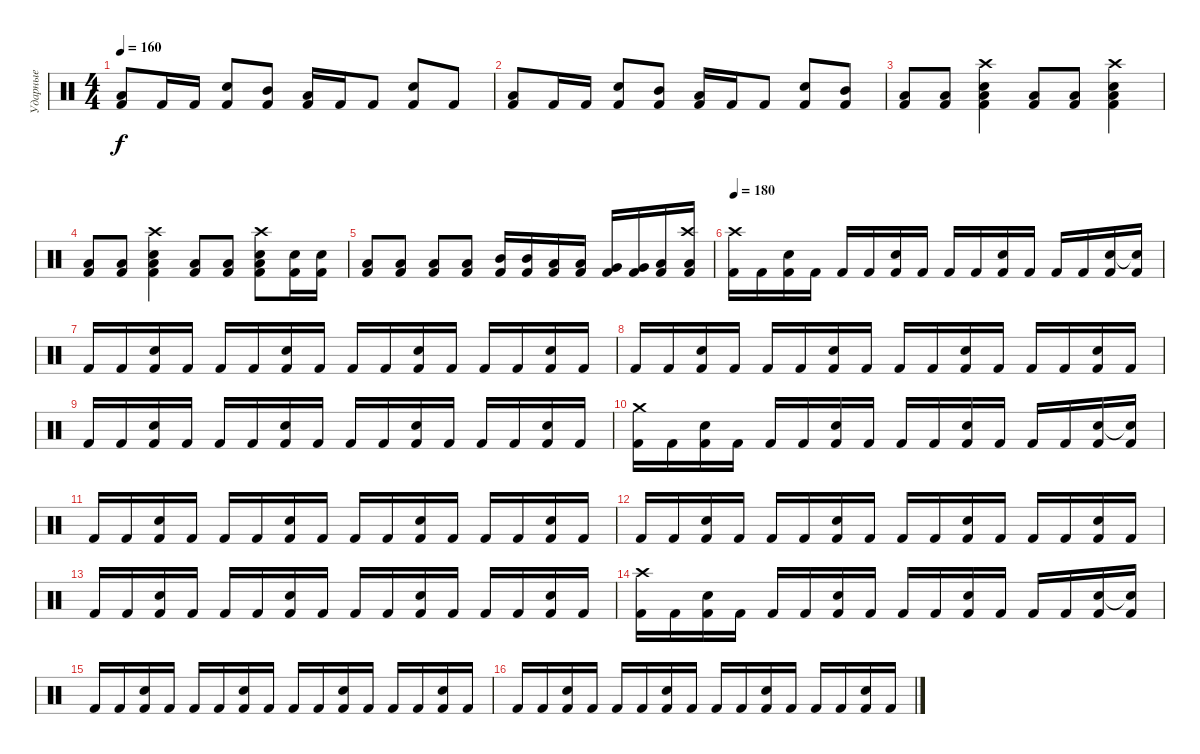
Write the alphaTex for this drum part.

\track ("Ударные" "Ударные") {instrument percussion}
\staff {score}
\articulation defaults
\ts (4 4)
\tempo 160
\clef neutral
\ks c
("Low Tom (hit)" "Kick (hit) 2").8{dy f} "Kick (hit) 2".16 "Kick (hit) 2".16 ("Snare (hit) 2" "Kick (hit) 2").8 ("Mid Tom (hit)" "Kick (hit) 2").8 ("Low Tom (hit)" "Kick (hit) 2").16 "Kick (hit) 2".16 "Kick (hit) 2".8 ("Snare (hit) 2" "Kick (hit) 2").8 "Kick (hit) 2".8 |
("Low Tom (hit)" "Kick (hit) 2").8 "Kick (hit) 2".16 "Kick (hit) 2".16 ("Snare (hit) 2" "Kick (hit) 2").8 ("Mid Tom (hit)" "Kick (hit) 2").8 ("Low Tom (hit)" "Kick (hit) 2").16 "Kick (hit) 2".16 "Kick (hit) 2".8 ("Snare (hit) 2" "Kick (hit) 2").8 ("Mid Tom (hit)" "Kick (hit) 2").8 |
("Low Tom (hit)" "Kick (hit) 2").8 ("Low Tom (hit)" "Kick (hit) 2").8 ("Crash high (hit)" "Snare (hit) 2" "Low Tom (hit)" "Kick (hit) 2").4 ("Low Tom (hit)" "Kick (hit) 2").8 ("Low Tom (hit)" "Kick (hit) 2").8 ("Crash high (hit)" "Snare (hit) 2" "Low Tom (hit)" "Kick (hit) 2").4 |
("Low Tom (hit)" "Kick (hit) 2").8 ("Low Tom (hit)" "Kick (hit) 2").8 ("Crash high (hit)" "Snare (hit) 2" "Low Tom (hit)" "Kick (hit) 2").4 ("Low Tom (hit)" "Kick (hit) 2").8 ("Low Tom (hit)" "Kick (hit) 2").8 ("Crash high (hit)" "Snare (hit) 2" "Low Tom (hit)" "Kick (hit) 2").8 ("Snare (hit) 2" "Kick (hit) 2").16 ("Snare (hit) 2" "Kick (hit) 2").16 |
("Low Tom (hit)" "Kick (hit) 2").8 ("Low Tom (hit)" "Kick (hit) 2").8 ("Low Tom (hit)" "Kick (hit) 2").8 ("Low Tom (hit)" "Kick (hit) 2").8 ("Mid Tom (hit)" "Kick (hit) 2").16 ("Mid Tom (hit)" "Kick (hit) 2").16 ("Low Tom (hit)" "Kick (hit) 2").16 ("Low Tom (hit)" "Kick (hit) 2").16 ("Very Low Tom (hit)" "Kick (hit) 2").16 ("Very Low Tom (hit)" "Kick (hit) 2").16 ("Low Floor Tom (hit)" "Kick (hit) 2").16 ("Crash high (hit)" "Low Floor Tom (hit)" "Kick (hit) 2").16 |
\tempo 180
("Crash high (hit)" "Kick (hit) 2").16 "Kick (hit) 2".16 ("Snare (hit) 2" "Kick (hit) 2").16 "Kick (hit) 2".16 "Kick (hit) 2".16 "Kick (hit) 2".16 ("Snare (hit) 2" "Kick (hit) 2").16 "Kick (hit) 2".16 "Kick (hit) 2".16 "Kick (hit) 2".16 ("Snare (hit) 2" "Kick (hit) 2").16 "Kick (hit) 2".16 "Kick (hit) 2".16 "Kick (hit) 2".16 ("Snare (hit) 2" "Kick (hit) 2").16 ("Snare (hit)"{t} "Kick (hit) 2").16 |
"Kick (hit) 2".16 "Kick (hit) 2".16 ("Snare (hit) 2" "Kick (hit) 2").16 "Kick (hit) 2".16 "Kick (hit) 2".16 "Kick (hit) 2".16 ("Snare (hit) 2" "Kick (hit) 2").16 "Kick (hit) 2".16 "Kick (hit) 2".16 "Kick (hit) 2".16 ("Snare (hit) 2" "Kick (hit) 2").16 "Kick (hit) 2".16 "Kick (hit) 2".16 "Kick (hit) 2".16 ("Snare (hit) 2" "Kick (hit) 2").16 "Kick (hit) 2".16 |
"Kick (hit) 2".16 "Kick (hit) 2".16 ("Snare (hit) 2" "Kick (hit) 2").16 "Kick (hit) 2".16 "Kick (hit) 2".16 "Kick (hit) 2".16 ("Snare (hit) 2" "Kick (hit) 2").16 "Kick (hit) 2".16 "Kick (hit) 2".16 "Kick (hit) 2".16 ("Snare (hit) 2" "Kick (hit) 2").16 "Kick (hit) 2".16 "Kick (hit) 2".16 "Kick (hit) 2".16 ("Snare (hit) 2" "Kick (hit) 2").16 "Kick (hit) 2".16 |
"Kick (hit) 2".16 "Kick (hit) 2".16 ("Snare (hit) 2" "Kick (hit) 2").16 "Kick (hit) 2".16 "Kick (hit) 2".16 "Kick (hit) 2".16 ("Snare (hit) 2" "Kick (hit) 2").16 "Kick (hit) 2".16 "Kick (hit) 2".16 "Kick (hit) 2".16 ("Snare (hit) 2" "Kick (hit) 2").16 "Kick (hit) 2".16 "Kick (hit) 2".16 "Kick (hit) 2".16 ("Snare (hit) 2" "Kick (hit) 2").16 "Kick (hit) 2".16 |
("Crash medium (hit)" "Kick (hit) 2").16 "Kick (hit) 2".16 ("Snare (hit) 2" "Kick (hit) 2").16 "Kick (hit) 2".16 "Kick (hit) 2".16 "Kick (hit) 2".16 ("Snare (hit) 2" "Kick (hit) 2").16 "Kick (hit) 2".16 "Kick (hit) 2".16 "Kick (hit) 2".16 ("Snare (hit) 2" "Kick (hit) 2").16 "Kick (hit) 2".16 "Kick (hit) 2".16 "Kick (hit) 2".16 ("Snare (hit) 2" "Kick (hit) 2").16 ("Snare (hit)"{t} "Kick (hit) 2").16 |
"Kick (hit) 2".16 "Kick (hit) 2".16 ("Snare (hit) 2" "Kick (hit) 2").16 "Kick (hit) 2".16 "Kick (hit) 2".16 "Kick (hit) 2".16 ("Snare (hit) 2" "Kick (hit) 2").16 "Kick (hit) 2".16 "Kick (hit) 2".16 "Kick (hit) 2".16 ("Snare (hit) 2" "Kick (hit) 2").16 "Kick (hit) 2".16 "Kick (hit) 2".16 "Kick (hit) 2".16 ("Snare (hit) 2" "Kick (hit) 2").16 "Kick (hit) 2".16 |
"Kick (hit) 2".16 "Kick (hit) 2".16 ("Snare (hit) 2" "Kick (hit) 2").16 "Kick (hit) 2".16 "Kick (hit) 2".16 "Kick (hit) 2".16 ("Snare (hit) 2" "Kick (hit) 2").16 "Kick (hit) 2".16 "Kick (hit) 2".16 "Kick (hit) 2".16 ("Snare (hit) 2" "Kick (hit) 2").16 "Kick (hit) 2".16 "Kick (hit) 2".16 "Kick (hit) 2".16 ("Snare (hit) 2" "Kick (hit) 2").16 "Kick (hit) 2".16 |
"Kick (hit) 2".16 "Kick (hit) 2".16 ("Snare (hit) 2" "Kick (hit) 2").16 "Kick (hit) 2".16 "Kick (hit) 2".16 "Kick (hit) 2".16 ("Snare (hit) 2" "Kick (hit) 2").16 "Kick (hit) 2".16 "Kick (hit) 2".16 "Kick (hit) 2".16 ("Snare (hit) 2" "Kick (hit) 2").16 "Kick (hit) 2".16 "Kick (hit) 2".16 "Kick (hit) 2".16 ("Snare (hit) 2" "Kick (hit) 2").16 "Kick (hit) 2".16 |
("Crash high (hit)" "Kick (hit) 2").16 "Kick (hit) 2".16 ("Snare (hit) 2" "Kick (hit) 2").16 "Kick (hit) 2".16 "Kick (hit) 2".16 "Kick (hit) 2".16 ("Snare (hit) 2" "Kick (hit) 2").16 "Kick (hit) 2".16 "Kick (hit) 2".16 "Kick (hit) 2".16 ("Snare (hit) 2" "Kick (hit) 2").16 "Kick (hit) 2".16 "Kick (hit) 2".16 "Kick (hit) 2".16 ("Snare (hit) 2" "Kick (hit) 2").16 ("Snare (hit)"{t} "Kick (hit) 2").16 |
"Kick (hit) 2".16 "Kick (hit) 2".16 ("Snare (hit) 2" "Kick (hit) 2").16 "Kick (hit) 2".16 "Kick (hit) 2".16 "Kick (hit) 2".16 ("Snare (hit) 2" "Kick (hit) 2").16 "Kick (hit) 2".16 "Kick (hit) 2".16 "Kick (hit) 2".16 ("Snare (hit) 2" "Kick (hit) 2").16 "Kick (hit) 2".16 "Kick (hit) 2".16 "Kick (hit) 2".16 ("Snare (hit) 2" "Kick (hit) 2").16 "Kick (hit) 2".16 |
"Kick (hit) 2".16 "Kick (hit) 2".16 ("Snare (hit) 2" "Kick (hit) 2").16 "Kick (hit) 2".16 "Kick (hit) 2".16 "Kick (hit) 2".16 ("Snare (hit) 2" "Kick (hit) 2").16 "Kick (hit) 2".16 "Kick (hit) 2".16 "Kick (hit) 2".16 ("Snare (hit) 2" "Kick (hit) 2").16 "Kick (hit) 2".16 "Kick (hit) 2".16 "Kick (hit) 2".16 ("Snare (hit) 2" "Kick (hit) 2").16 "Kick (hit) 2".16
